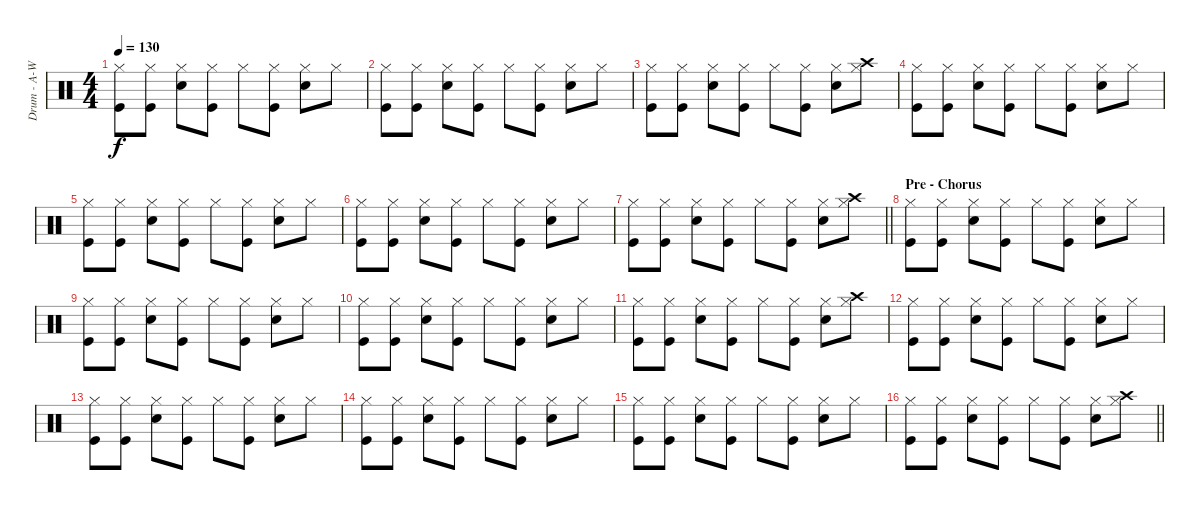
\track ("Drum - A-Word" "Drum - A-W") {instrument percussion}
\staff {score}
\articulation defaults
\ts (4 4)
\tempo 130
\clef neutral
\ks c
("Hi-Hat (closed)" "Kick (hit)").8{dy f} ("Hi-Hat (closed)" "Kick (hit)").8 ("Hi-Hat (closed)" "Snare (hit) 2").8 ("Hi-Hat (closed)" "Kick (hit)").8 "Hi-Hat (closed)".8 ("Hi-Hat (closed)" "Kick (hit)").8 ("Hi-Hat (closed)" "Snare (hit) 2").8 "Hi-Hat (closed)".8 |
("Hi-Hat (closed)" "Kick (hit)").8 ("Hi-Hat (closed)" "Kick (hit)").8 ("Hi-Hat (closed)" "Snare (hit) 2").8 ("Hi-Hat (closed)" "Kick (hit)").8 "Hi-Hat (closed)".8 ("Hi-Hat (closed)" "Kick (hit)").8 ("Hi-Hat (closed)" "Snare (hit) 2").8 "Hi-Hat (closed)".8 |
("Hi-Hat (closed)" "Kick (hit)").8 ("Hi-Hat (closed)" "Kick (hit)").8 ("Hi-Hat (closed)" "Snare (hit) 2").8 ("Hi-Hat (closed)" "Kick (hit)").8 "Hi-Hat (closed)".8 ("Hi-Hat (closed)" "Kick (hit)").8 ("Hi-Hat (closed)" "Snare (hit) 2").8 ("Hi-Hat (closed)" "Crash high (hit)").8 |
("Hi-Hat (closed)" "Kick (hit)").8 ("Hi-Hat (closed)" "Kick (hit)").8 ("Hi-Hat (closed)" "Snare (hit) 2").8 ("Hi-Hat (closed)" "Kick (hit)").8 "Hi-Hat (closed)".8 ("Hi-Hat (closed)" "Kick (hit)").8 ("Hi-Hat (closed)" "Snare (hit) 2").8 "Hi-Hat (closed)".8 |
("Hi-Hat (closed)" "Kick (hit)").8 ("Hi-Hat (closed)" "Kick (hit)").8 ("Hi-Hat (closed)" "Snare (hit) 2").8 ("Hi-Hat (closed)" "Kick (hit)").8 "Hi-Hat (closed)".8 ("Hi-Hat (closed)" "Kick (hit)").8 ("Hi-Hat (closed)" "Snare (hit) 2").8 "Hi-Hat (closed)".8 |
("Hi-Hat (closed)" "Kick (hit)").8 ("Hi-Hat (closed)" "Kick (hit)").8 ("Hi-Hat (closed)" "Snare (hit) 2").8 ("Hi-Hat (closed)" "Kick (hit)").8 "Hi-Hat (closed)".8 ("Hi-Hat (closed)" "Kick (hit)").8 ("Hi-Hat (closed)" "Snare (hit) 2").8 "Hi-Hat (closed)".8 |
\barLineRight lightlight
("Hi-Hat (closed)" "Kick (hit)").8 ("Hi-Hat (closed)" "Kick (hit)").8 ("Hi-Hat (closed)" "Snare (hit) 2").8 ("Hi-Hat (closed)" "Kick (hit)").8 "Hi-Hat (closed)".8 ("Hi-Hat (closed)" "Kick (hit)").8 ("Hi-Hat (closed)" "Snare (hit) 2").8 ("Hi-Hat (closed)" "Crash high (hit)").8 |
\section ("" "Pre - Chorus")
("Hi-Hat (closed)" "Kick (hit)").8 ("Hi-Hat (closed)" "Kick (hit)").8 ("Hi-Hat (closed)" "Snare (hit) 2").8 ("Hi-Hat (closed)" "Kick (hit)").8 "Hi-Hat (closed)".8 ("Hi-Hat (closed)" "Kick (hit)").8 ("Hi-Hat (closed)" "Snare (hit) 2").8 "Hi-Hat (closed)".8 |
("Hi-Hat (closed)" "Kick (hit)").8 ("Hi-Hat (closed)" "Kick (hit)").8 ("Hi-Hat (closed)" "Snare (hit) 2").8 ("Hi-Hat (closed)" "Kick (hit)").8 "Hi-Hat (closed)".8 ("Hi-Hat (closed)" "Kick (hit)").8 ("Hi-Hat (closed)" "Snare (hit) 2").8 "Hi-Hat (closed)".8 |
("Hi-Hat (closed)" "Kick (hit)").8 ("Hi-Hat (closed)" "Kick (hit)").8 ("Hi-Hat (closed)" "Snare (hit) 2").8 ("Hi-Hat (closed)" "Kick (hit)").8 "Hi-Hat (closed)".8 ("Hi-Hat (closed)" "Kick (hit)").8 ("Hi-Hat (closed)" "Snare (hit) 2").8 "Hi-Hat (closed)".8 |
("Hi-Hat (closed)" "Kick (hit)").8 ("Hi-Hat (closed)" "Kick (hit)").8 ("Hi-Hat (closed)" "Snare (hit) 2").8 ("Hi-Hat (closed)" "Kick (hit)").8 "Hi-Hat (closed)".8 ("Hi-Hat (closed)" "Kick (hit)").8 ("Hi-Hat (closed)" "Snare (hit) 2").8 ("Hi-Hat (closed)" "Crash high (hit)").8 |
("Hi-Hat (closed)" "Kick (hit)").8 ("Hi-Hat (closed)" "Kick (hit)").8 ("Hi-Hat (closed)" "Snare (hit) 2").8 ("Hi-Hat (closed)" "Kick (hit)").8 "Hi-Hat (closed)".8 ("Hi-Hat (closed)" "Kick (hit)").8 ("Hi-Hat (closed)" "Snare (hit) 2").8 "Hi-Hat (closed)".8 |
("Hi-Hat (closed)" "Kick (hit)").8 ("Hi-Hat (closed)" "Kick (hit)").8 ("Hi-Hat (closed)" "Snare (hit) 2").8 ("Hi-Hat (closed)" "Kick (hit)").8 "Hi-Hat (closed)".8 ("Hi-Hat (closed)" "Kick (hit)").8 ("Hi-Hat (closed)" "Snare (hit) 2").8 "Hi-Hat (closed)".8 |
("Hi-Hat (closed)" "Kick (hit)").8 ("Hi-Hat (closed)" "Kick (hit)").8 ("Hi-Hat (closed)" "Snare (hit) 2").8 ("Hi-Hat (closed)" "Kick (hit)").8 "Hi-Hat (closed)".8 ("Hi-Hat (closed)" "Kick (hit)").8 ("Hi-Hat (closed)" "Snare (hit) 2").8 "Hi-Hat (closed)".8 |
("Hi-Hat (closed)" "Kick (hit)").8 ("Hi-Hat (closed)" "Kick (hit)").8 ("Hi-Hat (closed)" "Snare (hit) 2").8 ("Hi-Hat (closed)" "Kick (hit)").8 "Hi-Hat (closed)".8 ("Hi-Hat (closed)" "Kick (hit)").8 ("Hi-Hat (closed)" "Snare (hit) 2").8 "Hi-Hat (closed)".8 |
\barLineRight lightlight
("Hi-Hat (closed)" "Kick (hit)").8 ("Hi-Hat (closed)" "Kick (hit)").8 ("Hi-Hat (closed)" "Snare (hit) 2").8 ("Hi-Hat (closed)" "Kick (hit)").8 "Hi-Hat (closed)".8 ("Hi-Hat (closed)" "Kick (hit)").8 ("Hi-Hat (closed)" "Snare (hit) 2").8 ("Hi-Hat (closed)" "Crash high (hit)").8
